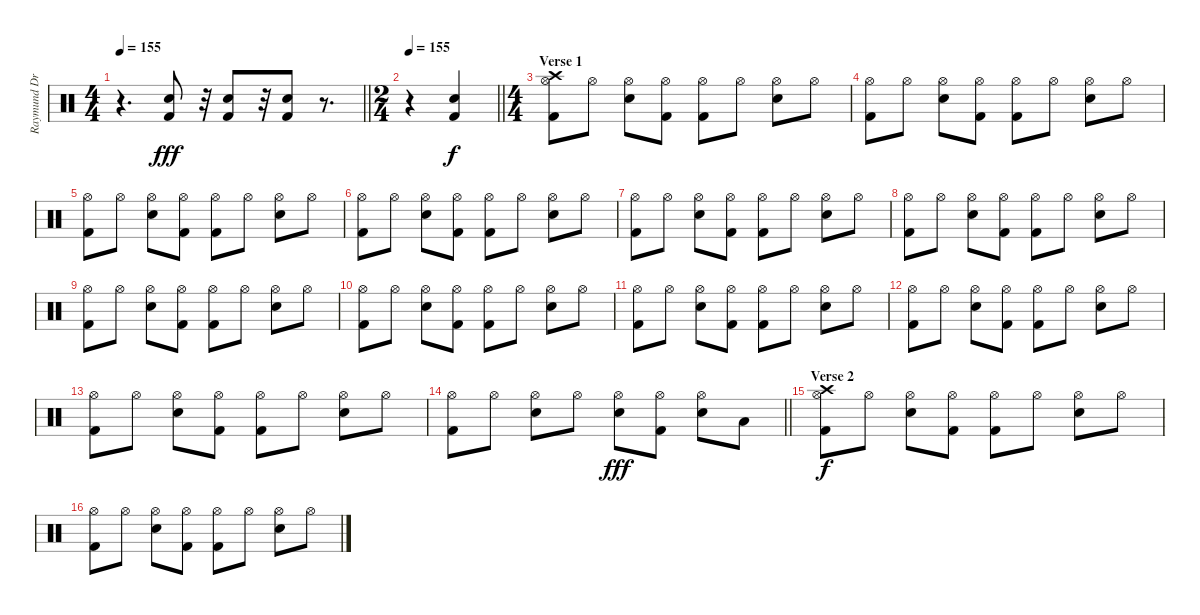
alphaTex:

\track ("Raymund Drums" "Raymund Dr") {instrument percussion}
\staff {score}
\articulation defaults
\ts (4 4)
\tempo 155
\clef neutral
\barLineRight lightlight
\ks c
r.4{d dy fff} ("Kick (hit) 2" "Snare (hit) 2").8 r.32 ("Kick (hit) 2" "Snare (hit) 2").8 r.32 ("Kick (hit) 2" "Snare (hit) 2").8 r.8{d} |
\ts (2 4)
\tempo 155
\barLineRight lightlight
r.4 ("Kick (hit) 2" "Snare (hit) 2").4{dy f} |
\ts (4 4)
\section ("" "Verse 1")
("Hi-Hat (open)" "Kick (hit) 2" "Crash high (hit)").8 "Hi-Hat (open)".8 ("Hi-Hat (open)" "Snare (hit) 2").8 ("Hi-Hat (open)" "Kick (hit) 2").8 ("Hi-Hat (open)" "Kick (hit) 2").8 "Hi-Hat (open)".8 ("Hi-Hat (open)" "Snare (hit) 2").8 "Hi-Hat (open)".8 |
("Hi-Hat (open)" "Kick (hit) 2").8 "Hi-Hat (open)".8 ("Hi-Hat (open)" "Snare (hit) 2").8 ("Hi-Hat (open)" "Kick (hit) 2").8 ("Hi-Hat (open)" "Kick (hit) 2").8 "Hi-Hat (open)".8 ("Hi-Hat (open)" "Snare (hit) 2").8 "Hi-Hat (open)".8 |
("Hi-Hat (open)" "Kick (hit) 2").8 "Hi-Hat (open)".8 ("Hi-Hat (open)" "Snare (hit) 2").8 ("Hi-Hat (open)" "Kick (hit) 2").8 ("Hi-Hat (open)" "Kick (hit) 2").8 "Hi-Hat (open)".8 ("Hi-Hat (open)" "Snare (hit) 2").8 "Hi-Hat (open)".8 |
("Hi-Hat (open)" "Kick (hit) 2").8 "Hi-Hat (open)".8 ("Hi-Hat (open)" "Snare (hit) 2").8 ("Hi-Hat (open)" "Kick (hit) 2").8 ("Hi-Hat (open)" "Kick (hit) 2").8 "Hi-Hat (open)".8 ("Hi-Hat (open)" "Snare (hit) 2").8 "Hi-Hat (open)".8 |
("Hi-Hat (open)" "Kick (hit) 2").8 "Hi-Hat (open)".8 ("Hi-Hat (open)" "Snare (hit) 2").8 ("Hi-Hat (open)" "Kick (hit) 2").8 ("Hi-Hat (open)" "Kick (hit) 2").8 "Hi-Hat (open)".8 ("Hi-Hat (open)" "Snare (hit) 2").8 "Hi-Hat (open)".8 |
("Hi-Hat (open)" "Kick (hit) 2").8 "Hi-Hat (open)".8 ("Hi-Hat (open)" "Snare (hit) 2").8 ("Hi-Hat (open)" "Kick (hit) 2").8 ("Hi-Hat (open)" "Kick (hit) 2").8 "Hi-Hat (open)".8 ("Hi-Hat (open)" "Snare (hit) 2").8 "Hi-Hat (open)".8 |
("Hi-Hat (open)" "Kick (hit) 2").8 "Hi-Hat (open)".8 ("Hi-Hat (open)" "Snare (hit) 2").8 ("Hi-Hat (open)" "Kick (hit) 2").8 ("Hi-Hat (open)" "Kick (hit) 2").8 "Hi-Hat (open)".8 ("Hi-Hat (open)" "Snare (hit) 2").8 "Hi-Hat (open)".8 |
("Hi-Hat (open)" "Kick (hit) 2").8 "Hi-Hat (open)".8 ("Hi-Hat (open)" "Snare (hit) 2").8 ("Hi-Hat (open)" "Kick (hit) 2").8 ("Hi-Hat (open)" "Kick (hit) 2").8 "Hi-Hat (open)".8 ("Hi-Hat (open)" "Snare (hit) 2").8 "Hi-Hat (open)".8 |
("Hi-Hat (open)" "Kick (hit) 2").8 "Hi-Hat (open)".8 ("Hi-Hat (open)" "Snare (hit) 2").8 ("Hi-Hat (open)" "Kick (hit) 2").8 ("Hi-Hat (open)" "Kick (hit) 2").8 "Hi-Hat (open)".8 ("Hi-Hat (open)" "Snare (hit) 2").8 "Hi-Hat (open)".8 |
("Hi-Hat (open)" "Kick (hit) 2").8 "Hi-Hat (open)".8 ("Hi-Hat (open)" "Snare (hit) 2").8 ("Hi-Hat (open)" "Kick (hit) 2").8 ("Hi-Hat (open)" "Kick (hit) 2").8 "Hi-Hat (open)".8 ("Hi-Hat (open)" "Snare (hit) 2").8 "Hi-Hat (open)".8 |
("Hi-Hat (open)" "Kick (hit) 2").8 "Hi-Hat (open)".8 ("Hi-Hat (open)" "Snare (hit) 2").8 ("Hi-Hat (open)" "Kick (hit) 2").8 ("Hi-Hat (open)" "Kick (hit) 2").8 "Hi-Hat (open)".8 ("Hi-Hat (open)" "Snare (hit) 2").8 "Hi-Hat (open)".8 |
\barLineRight lightlight
("Hi-Hat (open)" "Kick (hit) 2").8 "Hi-Hat (open)".8 ("Hi-Hat (open)" "Snare (hit) 2").8 "Hi-Hat (open)".8 ("Hi-Hat (open)" "Snare (hit) 2").8{dy fff} ("Hi-Hat (open)" "Kick (hit) 2").8 ("Hi-Hat (open)" "Snare (hit) 2").8 "Low Tom (hit)".8 |
\section ("" "Verse 2")
("Hi-Hat (open)" "Kick (hit) 2" "Crash high (hit)").8{dy f} "Hi-Hat (open)".8 ("Hi-Hat (open)" "Snare (hit) 2").8 ("Hi-Hat (open)" "Kick (hit) 2").8 ("Hi-Hat (open)" "Kick (hit) 2").8 "Hi-Hat (open)".8 ("Hi-Hat (open)" "Snare (hit) 2").8 "Hi-Hat (open)".8 |
("Hi-Hat (open)" "Kick (hit) 2").8 "Hi-Hat (open)".8 ("Hi-Hat (open)" "Snare (hit) 2").8 ("Hi-Hat (open)" "Kick (hit) 2").8 ("Hi-Hat (open)" "Kick (hit) 2").8 "Hi-Hat (open)".8 ("Hi-Hat (open)" "Snare (hit) 2").8 "Hi-Hat (open)".8
